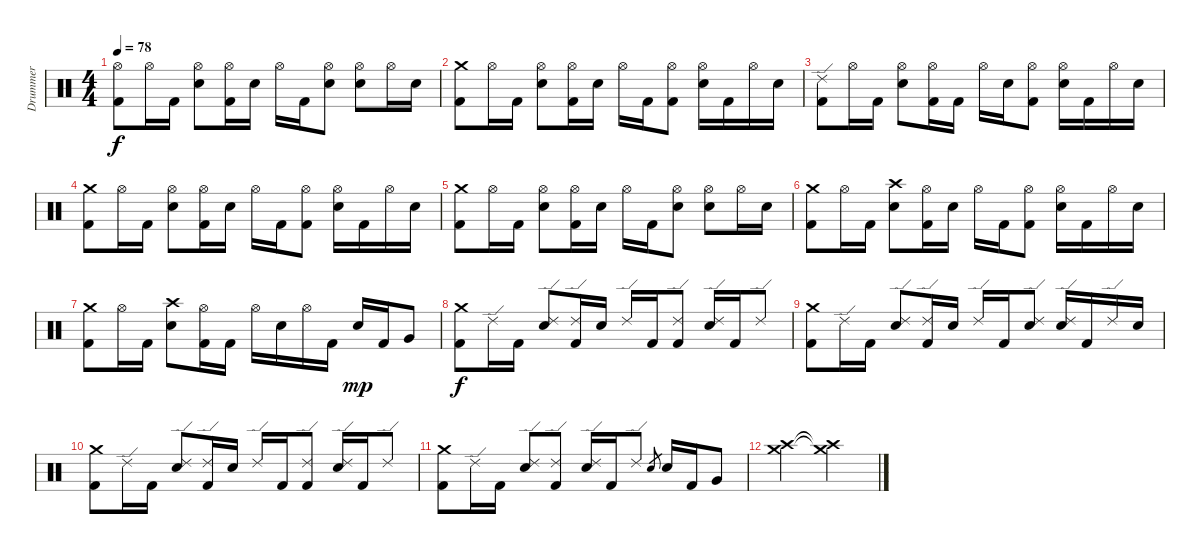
\track ("Drummer" "Drummer") {instrument percussion}
\staff {score}
\articulation defaults
\ts (4 4)
\tempo 78
\clef neutral
\ks c
("Hi-Hat (open)" "Kick (hit) 2").8{dy f} "Hi-Hat (open)".16 "Kick (hit) 2".16 ("Hi-Hat (open)" "Electric Snare (hit)").8 ("Hi-Hat (open)" "Kick (hit) 2").16 "Electric Snare (hit)".16 "Hi-Hat (open)".16 "Kick (hit) 2".16 ("Hi-Hat (open)" "Electric Snare (hit)").8 ("Hi-Hat (open)" "Electric Snare (hit)").8 "Hi-Hat (open)".16 "Electric Snare (hit)".16 |
("Crash medium (hit)" "Kick (hit) 2").8 "Hi-Hat (open)".16 "Kick (hit) 2".16 ("Hi-Hat (open)" "Electric Snare (hit)").8 ("Hi-Hat (open)" "Kick (hit) 2").16 "Electric Snare (hit)".16 "Hi-Hat (open)".16 "Kick (hit) 2".16 ("Hi-Hat (open)" "Kick (hit) 2").8 ("Hi-Hat (open)" "Electric Snare (hit)").16 "Kick (hit) 2".16 "Hi-Hat (open)".16 "Electric Snare (hit)".16 |
("Ride (edge) 2" "Kick (hit) 2").8 "Hi-Hat (open)".16 "Kick (hit) 2".16 ("Hi-Hat (open)" "Electric Snare (hit)").8 ("Hi-Hat (open)" "Kick (hit) 2").16 "Kick (hit) 2".16 "Hi-Hat (open)".16 "Electric Snare (hit)".16 ("Hi-Hat (open)" "Kick (hit) 2").8 ("Hi-Hat (open)" "Electric Snare (hit)").16 "Kick (hit) 2".16 "Hi-Hat (open)".16 "Electric Snare (hit)".16 |
("Crash medium (hit)" "Kick (hit) 2").8 "Hi-Hat (open)".16 "Kick (hit) 2".16 ("Hi-Hat (open)" "Electric Snare (hit)").8 ("Hi-Hat (open)" "Kick (hit) 2").16 "Electric Snare (hit)".16 "Hi-Hat (open)".16 "Kick (hit) 2".16 ("Hi-Hat (open)" "Kick (hit) 2").8 ("Hi-Hat (open)" "Electric Snare (hit)").16 "Kick (hit) 2".16 "Hi-Hat (open)".16 "Electric Snare (hit)".16 |
("Crash medium (hit)" "Kick (hit) 2").8 "Hi-Hat (open)".16 "Kick (hit) 2".16 ("Hi-Hat (open)" "Electric Snare (hit)").8 ("Hi-Hat (open)" "Kick (hit) 2").16 "Electric Snare (hit)".16 "Hi-Hat (open)".16 "Kick (hit) 2".16 ("Hi-Hat (open)" "Electric Snare (hit)").8 ("Hi-Hat (open)" "Electric Snare (hit)").8 "Hi-Hat (open)".16 "Electric Snare (hit)".16 |
("Crash medium (hit)" "Kick (hit) 2").8 "Hi-Hat (open)".16 "Kick (hit) 2".16 ("Crash high (hit)" "Electric Snare (hit)").8 ("Hi-Hat (open)" "Kick (hit) 2").16 "Electric Snare (hit)".16 "Hi-Hat (open)".16 "Kick (hit) 2".16 ("Hi-Hat (open)" "Kick (hit) 2").8 ("Hi-Hat (open)" "Electric Snare (hit)").16 "Kick (hit) 2".16 "Hi-Hat (open)".16 "Electric Snare (hit)".16 |
("Crash medium (hit)" "Kick (hit) 2").8 "Hi-Hat (open)".16 "Kick (hit) 2".16 ("Crash high (hit)" "Electric Snare (hit)").8 ("Hi-Hat (open)" "Kick (hit) 2").16 "Kick (hit) 2".16 "Hi-Hat (open)".16 "Electric Snare (hit)".16 "Hi-Hat (open)".16 "Kick (hit) 2".16 "Electric Snare (hit)".16{dy mp} "Kick (hit) 2".16 "Very Low Tom (hit)".8 |
("Crash medium (hit)" "Kick (hit) 2").8{dy f} "Ride (edge) 2".16 "Kick (hit) 2".16 ("Ride (edge) 2" "Electric Snare (hit)").8 ("Ride (edge) 2" "Kick (hit) 2").16 "Electric Snare (hit)".16 "Ride (edge) 2".16 "Kick (hit) 2".16 ("Ride (edge) 2" "Kick (hit) 2").8 ("Ride (edge) 2" "Electric Snare (hit)").16 "Kick (hit) 2".16 "Ride (edge) 2".8 |
("Crash medium (hit)" "Kick (hit) 2").8 "Ride (edge) 2".16 "Kick (hit) 2".16 ("Ride (edge) 2" "Electric Snare (hit)").8 ("Ride (edge) 2" "Kick (hit) 2").16 "Electric Snare (hit)".16 "Ride (edge) 2".16 "Kick (hit) 2".16 ("Ride (edge) 2" "Electric Snare (hit)").8 ("Ride (edge) 2" "Electric Snare (hit)").16 "Kick (hit) 2".16 "Ride (edge) 2".16 "Electric Snare (hit)".16 |
("Crash medium (hit)" "Kick (hit) 2").8 "Ride (edge) 2".16 "Kick (hit) 2".16 ("Ride (edge) 2" "Electric Snare (hit)").8 ("Ride (edge) 2" "Kick (hit) 2").16 "Electric Snare (hit)".16 "Ride (edge) 2".16 "Kick (hit) 2".16 ("Ride (edge) 2" "Kick (hit) 2").8 ("Ride (edge) 2" "Electric Snare (hit)").16 "Kick (hit) 2".16 "Ride (edge) 2".8 |
("Crash medium (hit)" "Kick (hit) 2").8 "Ride (edge) 2".16 "Kick (hit) 2".16 ("Ride (edge) 2" "Electric Snare (hit)").8 ("Ride (edge) 2" "Kick (hit) 2").8 ("Ride (edge) 2" "Electric Snare (hit)").16 "Kick (hit) 2".16 "Ride (edge) 2".8 "Electric Snare (hit)".8{gr beam merge} "Electric Snare (hit)".16 "Kick (hit) 2".16 "Very Low Tom (hit)".8 |
("Crash medium (hit)" "Crash high (hit)").2 ("Crash medium (hit)"{t} "Crash high (hit)"{t}).2
